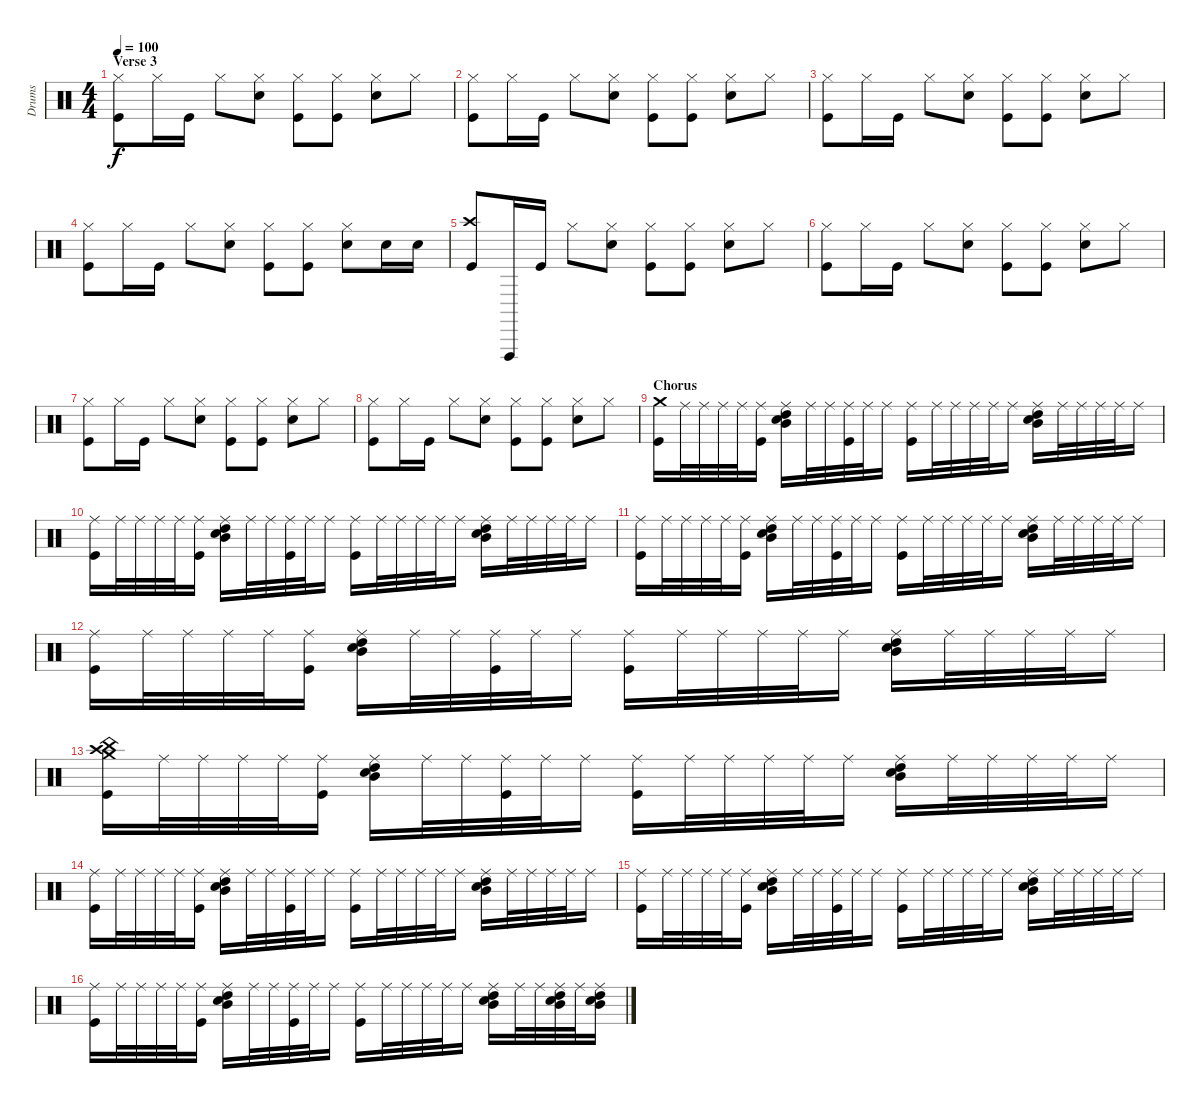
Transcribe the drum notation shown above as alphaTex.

\track ("Drums" "Drums") {instrument percussion}
\staff {score}
\articulation defaults
\ts (4 4)
\section ("" "Verse 3")
\tempo 100
\clef neutral
\ks c
("Hi-Hat (closed)" "Kick (hit)").8{dy f} "Hi-Hat (closed)".16 "Kick (hit)".16 "Hi-Hat (closed)".8 ("Hi-Hat (closed)" "Electric Snare (hit)").8 ("Hi-Hat (closed)" "Kick (hit)").8 ("Hi-Hat (closed)" "Kick (hit)").8 ("Hi-Hat (closed)" "Electric Snare (hit)").8 "Hi-Hat (closed)".8 |
("Hi-Hat (closed)" "Kick (hit)").8 "Hi-Hat (closed)".16 "Kick (hit)".16 "Hi-Hat (closed)".8 ("Hi-Hat (closed)" "Electric Snare (hit)").8 ("Hi-Hat (closed)" "Kick (hit)").8 ("Hi-Hat (closed)" "Kick (hit)").8 ("Hi-Hat (closed)" "Electric Snare (hit)").8 "Hi-Hat (closed)".8 |
("Hi-Hat (closed)" "Kick (hit)").8 "Hi-Hat (closed)".16 "Kick (hit)".16 "Hi-Hat (closed)".8 ("Hi-Hat (closed)" "Electric Snare (hit)").8 ("Hi-Hat (closed)" "Kick (hit)").8 ("Hi-Hat (closed)" "Kick (hit)").8 ("Hi-Hat (closed)" "Electric Snare (hit)").8 "Hi-Hat (closed)".8 |
("Hi-Hat (closed)" "Kick (hit)").8 "Hi-Hat (closed)".16 "Kick (hit)".16 "Hi-Hat (closed)".8 ("Hi-Hat (closed)" "Electric Snare (hit)").8 ("Hi-Hat (closed)" "Kick (hit)").8 ("Hi-Hat (closed)" "Kick (hit)").8 ("Hi-Hat (closed)" "Electric Snare (hit)").8 "Electric Snare (hit)".16 "Electric Snare (hit)".16 |
("Crash high (hit)" "Kick (hit)").8 "Vibraslap (hit)".16 "Kick (hit)".16 "Hi-Hat (closed)".8 ("Hi-Hat (closed)" "Electric Snare (hit)").8 ("Hi-Hat (closed)" "Kick (hit)").8 ("Hi-Hat (closed)" "Kick (hit)").8 ("Hi-Hat (closed)" "Electric Snare (hit)").8 "Hi-Hat (closed)".8 |
("Hi-Hat (closed)" "Kick (hit)").8 "Hi-Hat (closed)".16 "Kick (hit)".16 "Hi-Hat (closed)".8 ("Hi-Hat (closed)" "Electric Snare (hit)").8 ("Hi-Hat (closed)" "Kick (hit)").8 ("Hi-Hat (closed)" "Kick (hit)").8 ("Hi-Hat (closed)" "Electric Snare (hit)").8 "Hi-Hat (closed)".8 |
("Hi-Hat (closed)" "Kick (hit)").8 "Hi-Hat (closed)".16 "Kick (hit)".16 "Hi-Hat (closed)".8 ("Hi-Hat (closed)" "Electric Snare (hit)").8 ("Hi-Hat (closed)" "Kick (hit)").8 ("Hi-Hat (closed)" "Kick (hit)").8 ("Hi-Hat (closed)" "Electric Snare (hit)").8 "Hi-Hat (closed)".8 |
("Hi-Hat (closed)" "Kick (hit)").8 "Hi-Hat (closed)".16 "Kick (hit)".16 "Hi-Hat (closed)".8 ("Hi-Hat (closed)" "Electric Snare (hit)").8 ("Hi-Hat (closed)" "Kick (hit)").8 ("Hi-Hat (closed)" "Kick (hit)").8 ("Hi-Hat (closed)" "Electric Snare (hit)").8 "Hi-Hat (closed)".8 |
\section ("" "Chorus")
("Crash medium (hit)" "Kick (hit)").16 "Ride (middle)".32 "Ride (middle)".32 "Ride (middle)".32 "Ride (middle)".32 ("Ride (middle)" "Kick (hit)").16 ("Ride (middle)" "Snare (hit) 2" "High Tom (hit)" "Mid Tom (hit)").16 "Ride (middle)".32 "Ride (middle)".32 ("Ride (middle)" "Kick (hit)").32 "Ride (middle)".32 "Ride (middle)".16 ("Ride (middle)" "Kick (hit)").16 "Ride (middle)".32 "Ride (middle)".32 "Ride (middle)".32 "Ride (middle)".32 "Ride (middle)".16 ("Ride (middle)" "Snare (hit) 2" "High Tom (hit)" "Mid Tom (hit)").16 "Ride (middle)".32 "Ride (middle)".32 "Ride (middle)".32 "Ride (middle)".32 "Ride (middle)".16 |
("Ride (middle)" "Kick (hit)").16 "Ride (middle)".32 "Ride (middle)".32 "Ride (middle)".32 "Ride (middle)".32 ("Ride (middle)" "Kick (hit)").16 ("Ride (middle)" "Snare (hit) 2" "High Tom (hit)" "Mid Tom (hit)").16 "Ride (middle)".32 "Ride (middle)".32 ("Ride (middle)" "Kick (hit)").32 "Ride (middle)".32 "Ride (middle)".16 ("Ride (middle)" "Kick (hit)").16 "Ride (middle)".32 "Ride (middle)".32 "Ride (middle)".32 "Ride (middle)".32 "Ride (middle)".16 ("Ride (middle)" "Snare (hit) 2" "High Tom (hit)" "Mid Tom (hit)").16 "Ride (middle)".32 "Ride (middle)".32 "Ride (middle)".32 "Ride (middle)".32 "Ride (middle)".16 |
("Ride (middle)" "Kick (hit)").16 "Ride (middle)".32 "Ride (middle)".32 "Ride (middle)".32 "Ride (middle)".32 ("Ride (middle)" "Kick (hit)").16 ("Ride (middle)" "Snare (hit) 2" "High Tom (hit)" "Mid Tom (hit)").16 "Ride (middle)".32 "Ride (middle)".32 ("Ride (middle)" "Kick (hit)").32 "Ride (middle)".32 "Ride (middle)".16 ("Ride (middle)" "Kick (hit)").16 "Ride (middle)".32 "Ride (middle)".32 "Ride (middle)".32 "Ride (middle)".32 "Ride (middle)".16 ("Ride (middle)" "Snare (hit) 2" "High Tom (hit)" "Mid Tom (hit)").16 "Ride (middle)".32 "Ride (middle)".32 "Ride (middle)".32 "Ride (middle)".32 "Ride (middle)".16 |
("Ride (middle)" "Kick (hit)").16 "Ride (middle)".32 "Ride (middle)".32 "Ride (middle)".32 "Ride (middle)".32 ("Ride (middle)" "Kick (hit)").16 ("Ride (middle)" "Snare (hit) 2" "High Tom (hit)" "Mid Tom (hit)").16 "Ride (middle)".32 "Ride (middle)".32 ("Ride (middle)" "Kick (hit)").32 "Ride (middle)".32 "Ride (middle)".16 ("Ride (middle)" "Kick (hit)").16 "Ride (middle)".32 "Ride (middle)".32 "Ride (middle)".32 "Ride (middle)".32 "Ride (middle)".16 ("Ride (middle)" "Snare (hit) 2" "High Tom (hit)" "Mid Tom (hit)").16 "Ride (middle)".32 "Ride (middle)".32 "Ride (middle)".32 "Ride (middle)".32 "Ride (middle)".16 |
("Crash medium (hit)" "Crash high (hit)" "China (hit)" "Kick (hit)").16 "Ride (middle)".32 "Ride (middle)".32 "Ride (middle)".32 "Ride (middle)".32 ("Ride (middle)" "Kick (hit)").16 ("Ride (middle)" "Snare (hit) 2" "High Tom (hit)" "Mid Tom (hit)").16 "Ride (middle)".32 "Ride (middle)".32 ("Ride (middle)" "Kick (hit)").32 "Ride (middle)".32 "Ride (middle)".16 ("Ride (middle)" "Kick (hit)").16 "Ride (middle)".32 "Ride (middle)".32 "Ride (middle)".32 "Ride (middle)".32 "Ride (middle)".16 ("Ride (middle)" "Snare (hit) 2" "High Tom (hit)" "Mid Tom (hit)").16 "Ride (middle)".32 "Ride (middle)".32 "Ride (middle)".32 "Ride (middle)".32 "Ride (middle)".16 |
("Ride (middle)" "Kick (hit)").16 "Ride (middle)".32 "Ride (middle)".32 "Ride (middle)".32 "Ride (middle)".32 ("Ride (middle)" "Kick (hit)").16 ("Ride (middle)" "Snare (hit) 2" "High Tom (hit)" "Mid Tom (hit)").16 "Ride (middle)".32 "Ride (middle)".32 ("Ride (middle)" "Kick (hit)").32 "Ride (middle)".32 "Ride (middle)".16 ("Ride (middle)" "Kick (hit)").16 "Ride (middle)".32 "Ride (middle)".32 "Ride (middle)".32 "Ride (middle)".32 "Ride (middle)".16 ("Ride (middle)" "Snare (hit) 2" "High Tom (hit)" "Mid Tom (hit)").16 "Ride (middle)".32 "Ride (middle)".32 "Ride (middle)".32 "Ride (middle)".32 "Ride (middle)".16 |
("Ride (middle)" "Kick (hit)").16 "Ride (middle)".32 "Ride (middle)".32 "Ride (middle)".32 "Ride (middle)".32 ("Ride (middle)" "Kick (hit)").16 ("Ride (middle)" "Snare (hit) 2" "High Tom (hit)" "Mid Tom (hit)").16 "Ride (middle)".32 "Ride (middle)".32 ("Ride (middle)" "Kick (hit)").32 "Ride (middle)".32 "Ride (middle)".16 ("Ride (middle)" "Kick (hit)").16 "Ride (middle)".32 "Ride (middle)".32 "Ride (middle)".32 "Ride (middle)".32 "Ride (middle)".16 ("Ride (middle)" "Snare (hit) 2" "High Tom (hit)" "Mid Tom (hit)").16 "Ride (middle)".32 "Ride (middle)".32 "Ride (middle)".32 "Ride (middle)".32 "Ride (middle)".16 |
("Ride (middle)" "Kick (hit)").16 "Ride (middle)".32 "Ride (middle)".32 "Ride (middle)".32 "Ride (middle)".32 ("Ride (middle)" "Kick (hit)").16 ("Ride (middle)" "Snare (hit) 2" "High Tom (hit)" "Mid Tom (hit)").16 "Ride (middle)".32 "Ride (middle)".32 ("Ride (middle)" "Kick (hit)").32 "Ride (middle)".32 "Ride (middle)".16 ("Ride (middle)" "Kick (hit)").16 "Ride (middle)".32 "Ride (middle)".32 "Ride (middle)".32 "Ride (middle)".32 "Ride (middle)".16 ("Ride (middle)" "Snare (hit) 2" "High Tom (hit)" "Mid Tom (hit)").16 "Ride (middle)".32 "Ride (middle)".32 ("Ride (middle)" "Snare (hit) 2" "High Tom (hit)" "Mid Tom (hit)").32 "Ride (middle)".32 ("Ride (middle)" "Snare (hit) 2" "High Tom (hit)" "Mid Tom (hit)").16
